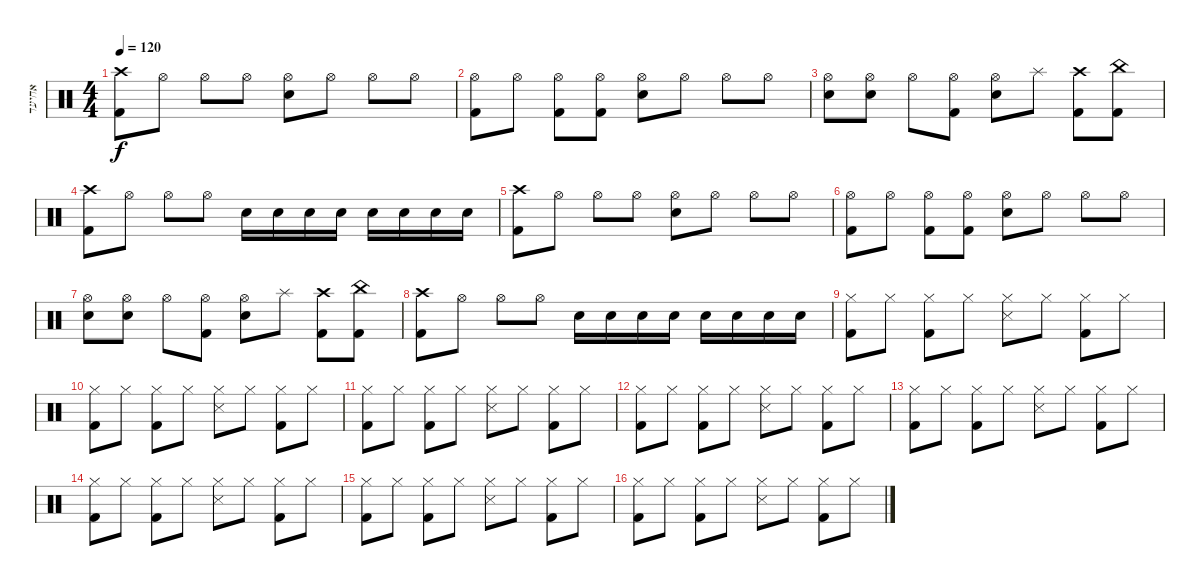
\track ("אחיעד" "אחיעד") {instrument percussion}
\staff {score}
\articulation defaults
\ts (4 4)
\tempo 120
\clef neutral
\ks c
("Crash high (hit)" "Kick (hit) 2").8{dy f} "Hi-Hat (open)".8 "Hi-Hat (open)".8 "Hi-Hat (open)".8 ("Hi-Hat (open)" "Snare (hit) 2").8 "Hi-Hat (open)".8 "Hi-Hat (open)".8 "Hi-Hat (open)".8 |
("Hi-Hat (open)" "Kick (hit) 2").8 "Hi-Hat (open)".8 ("Hi-Hat (open)" "Kick (hit) 2").8 ("Hi-Hat (open)" "Kick (hit) 2").8 ("Hi-Hat (open)" "Snare (hit) 2").8 "Hi-Hat (open)".8 "Hi-Hat (open)".8 "Hi-Hat (open)".8 |
("Hi-Hat (open)" "Snare (hit) 2").8 ("Hi-Hat (open)" "Snare (hit) 2").8 "Hi-Hat (open)".8 ("Hi-Hat (open)" "Kick (hit) 2").8 ("Hi-Hat (open)" "Snare (hit) 2").8 "Splash (hit)".8 ("Crash high (hit)" "Kick (hit) 2").8 ("China (hit)" "Kick (hit) 2").8 |
("Crash high (hit)" "Kick (hit) 2").8 "Hi-Hat (open)".8 "Hi-Hat (open)".8 "Hi-Hat (open)".8 "Snare (hit) 2".16 "Snare (hit) 2".16 "Snare (hit) 2".16 "Snare (hit) 2".16 "Snare (hit) 2".16 "Snare (hit) 2".16 "Snare (hit) 2".16 "Snare (hit) 2".16 |
("Crash high (hit)" "Kick (hit) 2").8 "Hi-Hat (open)".8 "Hi-Hat (open)".8 "Hi-Hat (open)".8 ("Hi-Hat (open)" "Snare (hit) 2").8 "Hi-Hat (open)".8 "Hi-Hat (open)".8 "Hi-Hat (open)".8 |
("Hi-Hat (open)" "Kick (hit) 2").8 "Hi-Hat (open)".8 ("Hi-Hat (open)" "Kick (hit) 2").8 ("Hi-Hat (open)" "Kick (hit) 2").8 ("Hi-Hat (open)" "Snare (hit) 2").8 "Hi-Hat (open)".8 "Hi-Hat (open)".8 "Hi-Hat (open)".8 |
("Hi-Hat (open)" "Snare (hit) 2").8 ("Hi-Hat (open)" "Snare (hit) 2").8 "Hi-Hat (open)".8 ("Hi-Hat (open)" "Kick (hit) 2").8 ("Hi-Hat (open)" "Snare (hit) 2").8 "Splash (hit)".8 ("Crash high (hit)" "Kick (hit) 2").8 ("China (hit)" "Kick (hit) 2").8 |
("Crash high (hit)" "Kick (hit) 2").8 "Hi-Hat (open)".8 "Hi-Hat (open)".8 "Hi-Hat (open)".8 "Snare (hit) 2".16 "Snare (hit) 2".16 "Snare (hit) 2".16 "Snare (hit) 2".16 "Snare (hit) 2".16 "Snare (hit) 2".16 "Snare (hit) 2".16 "Snare (hit) 2".16 |
("Hi-Hat (closed)" "Kick (hit) 2").8 "Hi-Hat (closed)".8 ("Hi-Hat (closed)" "Kick (hit) 2").8 "Hi-Hat (closed)".8 ("Hi-Hat (closed)" "Snare (side stick) 3").8 "Hi-Hat (closed)".8 ("Hi-Hat (closed)" "Kick (hit) 2").8 "Hi-Hat (closed)".8 |
("Hi-Hat (closed)" "Kick (hit) 2").8 "Hi-Hat (closed)".8 ("Hi-Hat (closed)" "Kick (hit) 2").8 "Hi-Hat (closed)".8 ("Hi-Hat (closed)" "Snare (side stick) 3").8 "Hi-Hat (closed)".8 ("Hi-Hat (closed)" "Kick (hit) 2").8 "Hi-Hat (closed)".8 |
("Hi-Hat (closed)" "Kick (hit) 2").8 "Hi-Hat (closed)".8 ("Hi-Hat (closed)" "Kick (hit) 2").8 "Hi-Hat (closed)".8 ("Hi-Hat (closed)" "Snare (side stick) 3").8 "Hi-Hat (closed)".8 ("Hi-Hat (closed)" "Kick (hit) 2").8 "Hi-Hat (closed)".8 |
("Hi-Hat (closed)" "Kick (hit) 2").8 "Hi-Hat (closed)".8 ("Hi-Hat (closed)" "Kick (hit) 2").8 "Hi-Hat (closed)".8 ("Hi-Hat (closed)" "Snare (side stick) 3").8 "Hi-Hat (closed)".8 ("Hi-Hat (closed)" "Kick (hit) 2").8 "Hi-Hat (closed)".8 |
("Hi-Hat (closed)" "Kick (hit) 2").8 "Hi-Hat (closed)".8 ("Hi-Hat (closed)" "Kick (hit) 2").8 "Hi-Hat (closed)".8 ("Hi-Hat (closed)" "Snare (side stick) 3").8 "Hi-Hat (closed)".8 ("Hi-Hat (closed)" "Kick (hit) 2").8 "Hi-Hat (closed)".8 |
("Hi-Hat (closed)" "Kick (hit) 2").8 "Hi-Hat (closed)".8 ("Hi-Hat (closed)" "Kick (hit) 2").8 "Hi-Hat (closed)".8 ("Hi-Hat (closed)" "Snare (side stick) 3").8 "Hi-Hat (closed)".8 ("Hi-Hat (closed)" "Kick (hit) 2").8 "Hi-Hat (closed)".8 |
("Hi-Hat (closed)" "Kick (hit) 2").8 "Hi-Hat (closed)".8 ("Hi-Hat (closed)" "Kick (hit) 2").8 "Hi-Hat (closed)".8 ("Hi-Hat (closed)" "Snare (side stick) 3").8 "Hi-Hat (closed)".8 ("Hi-Hat (closed)" "Kick (hit) 2").8 "Hi-Hat (closed)".8 |
("Hi-Hat (closed)" "Kick (hit) 2").8 "Hi-Hat (closed)".8 ("Hi-Hat (closed)" "Kick (hit) 2").8 "Hi-Hat (closed)".8 ("Hi-Hat (closed)" "Snare (side stick) 3").8 "Hi-Hat (closed)".8 ("Hi-Hat (closed)" "Kick (hit) 2").8 "Hi-Hat (closed)".8
